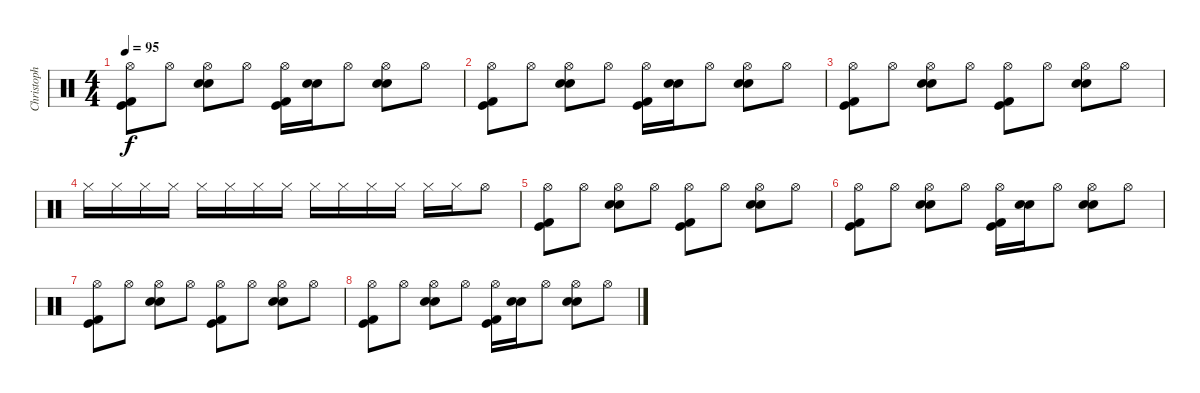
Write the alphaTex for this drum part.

\track ("Christoph" "Christoph") {instrument percussion}
\staff {score}
\articulation defaults
\ts (4 4)
\tempo 95
\clef neutral
\ks c
("Hi-Hat (open)" "Kick (hit) 2" "Kick (hit)").8{dy f} "Hi-Hat (open)".8 ("Hi-Hat (open)" "Electric Snare (hit)" "Snare (hit) 2").8 "Hi-Hat (open)".8 ("Hi-Hat (open)" "Kick (hit)" "Kick (hit) 2").16 ("Electric Snare (hit)" "Snare (hit) 2").16 "Hi-Hat (open)".8 ("Hi-Hat (open)" "Electric Snare (hit)" "Snare (hit) 2").8 "Hi-Hat (open)".8 |
("Hi-Hat (open)" "Kick (hit) 2" "Kick (hit)").8 "Hi-Hat (open)".8 ("Hi-Hat (open)" "Electric Snare (hit)" "Snare (hit) 2").8 "Hi-Hat (open)".8 ("Hi-Hat (open)" "Kick (hit)" "Kick (hit) 2").16 ("Electric Snare (hit)" "Snare (hit) 2").16 "Hi-Hat (open)".8 ("Hi-Hat (open)" "Electric Snare (hit)" "Snare (hit) 2").8 "Hi-Hat (open)".8 |
("Hi-Hat (open)" "Kick (hit)" "Kick (hit) 2").8 "Hi-Hat (open)".8 ("Hi-Hat (open)" "Electric Snare (hit)" "Snare (hit) 2").8 "Hi-Hat (open)".8 ("Hi-Hat (open)" "Kick (hit)" "Kick (hit) 2").8 "Hi-Hat (open)".8 ("Hi-Hat (open)" "Electric Snare (hit)" "Snare (hit) 2").8 "Hi-Hat (open)".8 |
"Hi-Hat (closed)".16 "Hi-Hat (closed)".16 "Hi-Hat (closed)".16 "Hi-Hat (closed)".16 "Hi-Hat (closed)".16 "Hi-Hat (closed)".16 "Hi-Hat (closed)".16 "Hi-Hat (closed)".16 "Hi-Hat (closed)".16 "Hi-Hat (closed)".16 "Hi-Hat (closed)".16 "Hi-Hat (closed)".16 "Hi-Hat (closed)".16 "Hi-Hat (closed)".16 "Hi-Hat (open)".8 |
("Hi-Hat (open)" "Kick (hit)" "Kick (hit) 2").8 "Hi-Hat (open)".8 ("Hi-Hat (open)" "Electric Snare (hit)" "Snare (hit) 2").8 "Hi-Hat (open)".8 ("Hi-Hat (open)" "Kick (hit)" "Kick (hit) 2").8 "Hi-Hat (open)".8 ("Hi-Hat (open)" "Electric Snare (hit)" "Snare (hit) 2").8 "Hi-Hat (open)".8 |
("Hi-Hat (open)" "Kick (hit) 2" "Kick (hit)").8 "Hi-Hat (open)".8 ("Hi-Hat (open)" "Electric Snare (hit)" "Snare (hit) 2").8 "Hi-Hat (open)".8 ("Hi-Hat (open)" "Kick (hit)" "Kick (hit) 2").16 ("Electric Snare (hit)" "Snare (hit) 2").16 "Hi-Hat (open)".8 ("Hi-Hat (open)" "Electric Snare (hit)" "Snare (hit) 2").8 "Hi-Hat (open)".8 |
("Hi-Hat (open)" "Kick (hit)" "Kick (hit) 2").8 "Hi-Hat (open)".8 ("Hi-Hat (open)" "Electric Snare (hit)" "Snare (hit) 2").8 "Hi-Hat (open)".8 ("Hi-Hat (open)" "Kick (hit)" "Kick (hit) 2").8 "Hi-Hat (open)".8 ("Hi-Hat (open)" "Electric Snare (hit)" "Snare (hit) 2").8 "Hi-Hat (open)".8 |
("Hi-Hat (open)" "Kick (hit) 2" "Kick (hit)").8 "Hi-Hat (open)".8 ("Hi-Hat (open)" "Electric Snare (hit)" "Snare (hit) 2").8 "Hi-Hat (open)".8 ("Hi-Hat (open)" "Kick (hit)" "Kick (hit) 2").16 ("Electric Snare (hit)" "Snare (hit) 2").16 "Hi-Hat (open)".8 ("Hi-Hat (open)" "Electric Snare (hit)" "Snare (hit) 2").8 "Hi-Hat (open)".8
